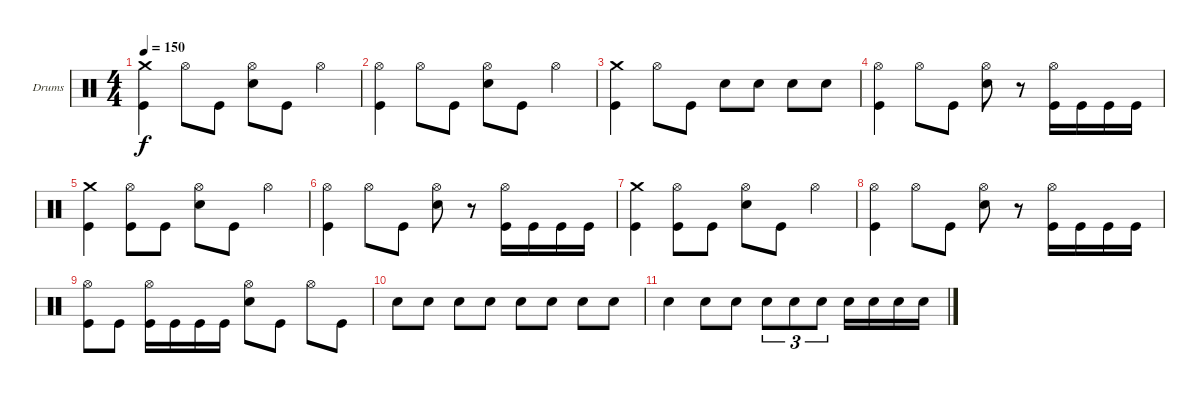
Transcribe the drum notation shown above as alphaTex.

\defaultSystemsLayout 4
\bracketExtendMode groupsimilarinstruments
\firstSystemTrackNameOrientation horizontal
\otherSystemsTrackNameOrientation horizontal
\track ("Drumkit" "Drums") {instrument percussion}
\staff {score}
\articulation defaults
\ts (4 4)
\tempo 150
\clef neutral
\ks c
("Kick (hit)" "Crash medium (hit)").4{dy f} "Hi-Hat (open)".8 "Kick (hit)".8 ("Hi-Hat (open)" "Snare (hit) 2").8 "Kick (hit)".8 "Hi-Hat (open)".4 |
("Kick (hit)" "Hi-Hat (open)").4 "Hi-Hat (open)".8 "Kick (hit)".8 ("Hi-Hat (open)" "Snare (hit) 2").8 "Kick (hit)".8 "Hi-Hat (open)".4 |
("Kick (hit)" "Crash medium (hit)").4 "Hi-Hat (open)".8 "Kick (hit)".8 "Snare (hit) 2".8 "Snare (hit) 2".8 "Snare (hit) 2".8 "Snare (hit) 2".8 |
("Kick (hit)" "Hi-Hat (open)").4 "Hi-Hat (open)".8 "Kick (hit)".8 ("Hi-Hat (open)" "Snare (hit) 2").8 r.8 ("Hi-Hat (open)" "Kick (hit)").16 "Kick (hit)".16 "Kick (hit)".16 "Kick (hit)".16 |
("Kick (hit)" "Crash medium (hit)").4 ("Hi-Hat (open)" "Kick (hit)").8 "Kick (hit)".8 ("Hi-Hat (open)" "Snare (hit) 2").8 "Kick (hit)".8 "Hi-Hat (open)".4 |
("Kick (hit)" "Hi-Hat (open)").4 "Hi-Hat (open)".8 "Kick (hit)".8 ("Hi-Hat (open)" "Snare (hit) 2").8 r.8 ("Hi-Hat (open)" "Kick (hit)").16 "Kick (hit)".16 "Kick (hit)".16 "Kick (hit)".16 |
("Kick (hit)" "Crash medium (hit)").4 ("Hi-Hat (open)" "Kick (hit)").8 "Kick (hit)".8 ("Hi-Hat (open)" "Snare (hit) 2").8 "Kick (hit)".8 "Hi-Hat (open)".4 |
("Kick (hit)" "Hi-Hat (open)").4 "Hi-Hat (open)".8 "Kick (hit)".8 ("Hi-Hat (open)" "Snare (hit) 2").8 r.8 ("Hi-Hat (open)" "Kick (hit)").16 "Kick (hit)".16 "Kick (hit)".16 "Kick (hit)".16 |
("Kick (hit)" "Hi-Hat (open)").8 "Kick (hit)".8 ("Hi-Hat (open)" "Kick (hit)").16 "Kick (hit)".16 "Kick (hit)".16 "Kick (hit)".16 ("Hi-Hat (open)" "Snare (hit) 2").8 "Kick (hit)".8 "Hi-Hat (open)".8 "Kick (hit)".8 |
"Snare (hit) 2".8 "Snare (hit) 2".8 "Snare (hit) 2".8 "Snare (hit) 2".8 "Snare (hit) 2".8 "Snare (hit) 2".8 "Snare (hit) 2".8 "Snare (hit) 2".8 |
"Snare (hit) 2".4 "Snare (hit) 2".8 "Snare (hit) 2".8 "Snare (hit) 2".8{tu (3 2)} "Snare (hit) 2".8{tu (3 2)} "Snare (hit) 2".8{tu (3 2)} "Snare (hit) 2".16 "Snare (hit) 2".16 "Snare (hit) 2".16 "Snare (hit) 2".16
